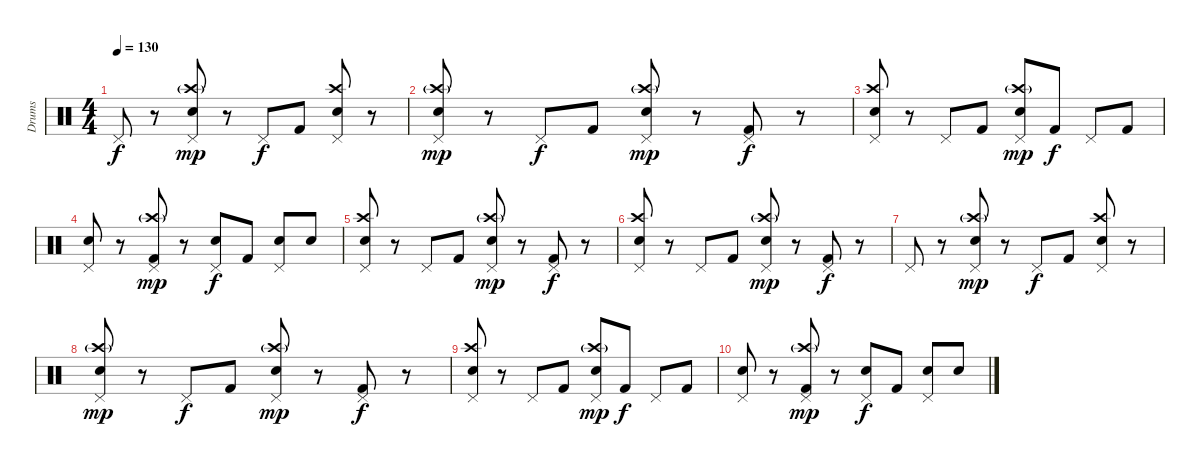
\track ("Drums" "Drums") {instrument percussion}
\staff {score}
\articulation defaults
\ts (4 4)
\tempo 130
\clef neutral
\ks c "Pedal Hi-Hat (hit)".8{dy f}
r.8 ("Crash high (hit)"{g} "Snare (hit) 2" "Pedal Hi-Hat (hit)").8{dy mp} r.8 "Pedal Hi-Hat (hit)".8{dy f} "Kick (hit) 2".8 ("Crash high (hit)" "Snare (hit) 2" "Pedal Hi-Hat (hit)").8 r.8 |
("Crash high (hit)"{g} "Snare (hit) 2" "Pedal Hi-Hat (hit)").8{dy mp} r.8 "Pedal Hi-Hat (hit)".8{dy f} "Kick (hit) 2".8 ("Crash high (hit)"{g} "Snare (hit) 2" "Pedal Hi-Hat (hit)").8{dy mp} r.8 ("Pedal Hi-Hat (hit)" "Kick (hit) 2").8{dy f} r.8 |
("Crash high (hit)" "Snare (hit) 2" "Pedal Hi-Hat (hit)").8 r.8 "Pedal Hi-Hat (hit)".8 "Kick (hit) 2".8 ("Crash high (hit)"{g} "Snare (hit) 2" "Pedal Hi-Hat (hit)").8{dy mp} "Kick (hit) 2".8{dy f} "Pedal Hi-Hat (hit)".8 "Kick (hit) 2".8 |
("Snare (hit) 2" "Pedal Hi-Hat (hit)").8 r.8 ("Crash high (hit)"{g} "Pedal Hi-Hat (hit)" "Kick (hit) 2").8{dy mp} r.8 ("Snare (hit) 2" "Pedal Hi-Hat (hit)").8{dy f} "Kick (hit) 2".8 ("Snare (hit) 2" "Pedal Hi-Hat (hit)").8 "Snare (hit) 2".8 |
("Crash high (hit)" "Snare (hit) 2" "Pedal Hi-Hat (hit)").8 r.8 "Pedal Hi-Hat (hit)".8 "Kick (hit) 2".8 ("Crash high (hit)"{g} "Snare (hit) 2" "Pedal Hi-Hat (hit)").8{dy mp} r.8 ("Pedal Hi-Hat (hit)" "Kick (hit) 2").8{dy f} r.8 |
("Crash high (hit)" "Snare (hit) 2" "Pedal Hi-Hat (hit)").8 r.8 "Pedal Hi-Hat (hit)".8 "Kick (hit) 2".8 ("Crash high (hit)"{g} "Snare (hit) 2" "Pedal Hi-Hat (hit)").8{dy mp} r.8 ("Pedal Hi-Hat (hit)" "Kick (hit) 2").8{dy f} r.8 |
"Pedal Hi-Hat (hit)".8 r.8 ("Crash high (hit)"{g} "Snare (hit) 2" "Pedal Hi-Hat (hit)").8{dy mp} r.8 "Pedal Hi-Hat (hit)".8{dy f} "Kick (hit) 2".8 ("Crash high (hit)" "Snare (hit) 2" "Pedal Hi-Hat (hit)").8 r.8 |
("Crash high (hit)"{g} "Snare (hit) 2" "Pedal Hi-Hat (hit)").8{dy mp} r.8 "Pedal Hi-Hat (hit)".8{dy f} "Kick (hit) 2".8 ("Crash high (hit)"{g} "Snare (hit) 2" "Pedal Hi-Hat (hit)").8{dy mp} r.8 ("Pedal Hi-Hat (hit)" "Kick (hit) 2").8{dy f} r.8 |
("Crash high (hit)" "Snare (hit) 2" "Pedal Hi-Hat (hit)").8 r.8 "Pedal Hi-Hat (hit)".8 "Kick (hit) 2".8 ("Crash high (hit)"{g} "Snare (hit) 2" "Pedal Hi-Hat (hit)").8{dy mp} "Kick (hit) 2".8{dy f} "Pedal Hi-Hat (hit)".8 "Kick (hit) 2".8 |
("Snare (hit) 2" "Pedal Hi-Hat (hit)").8 r.8 ("Crash high (hit)"{g} "Pedal Hi-Hat (hit)" "Kick (hit) 2").8{dy mp} r.8 ("Snare (hit) 2" "Pedal Hi-Hat (hit)").8{dy f} "Kick (hit) 2".8 ("Snare (hit) 2" "Pedal Hi-Hat (hit)").8 "Snare (hit) 2".8
